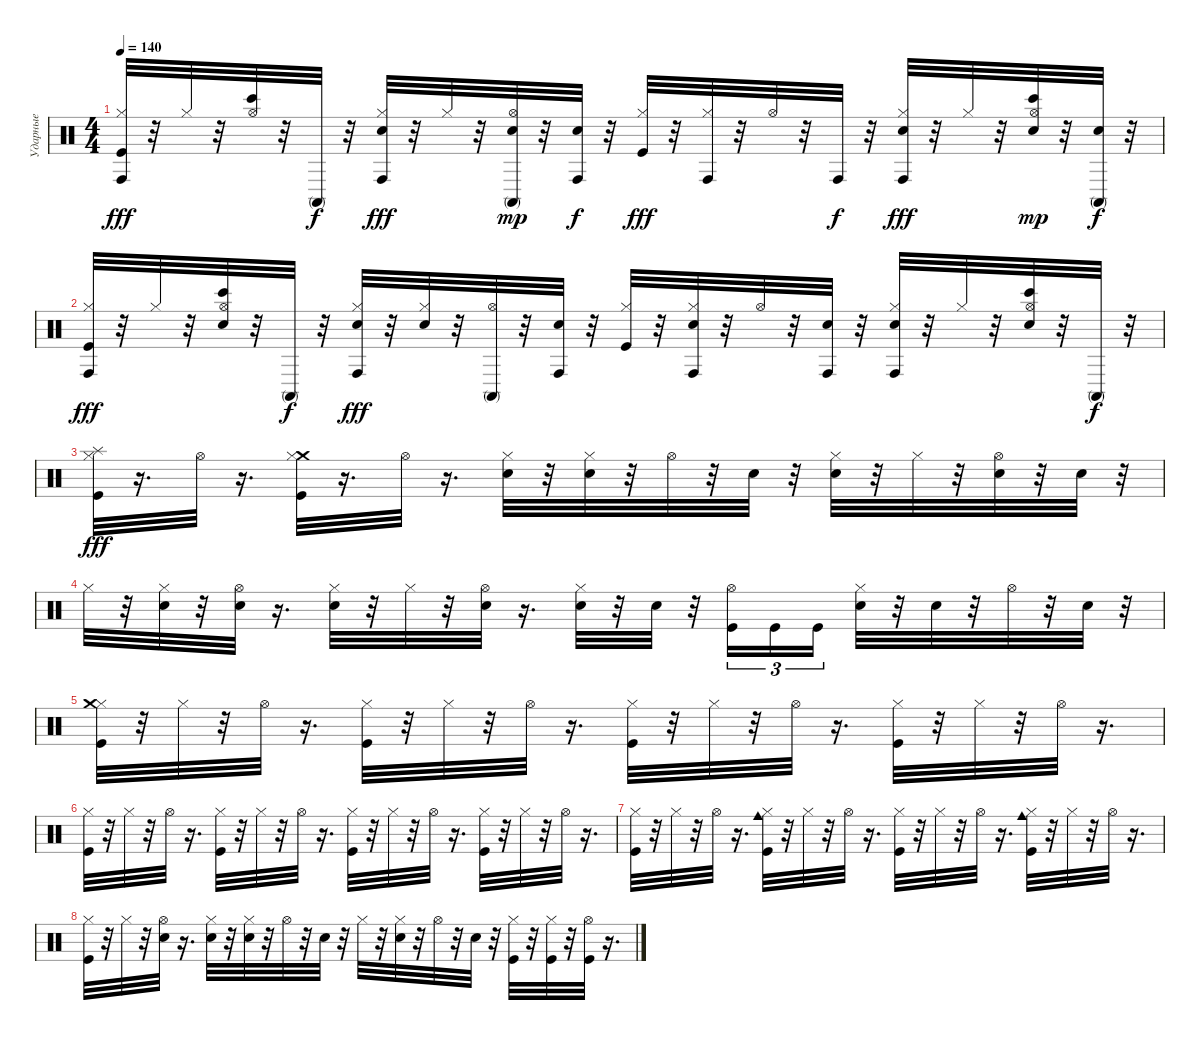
\track ("Ударные" "Ударные") {instrument percussion}
\staff {score}
\articulation defaults
\ts (4 4)
\tempo 140
\clef neutral
\ks c
("Kick (hit)" "Hi-Hat (closed)" "Conga high (hit)").32{dy fff} r.32 "Hi-Hat (closed)".32 r.32 ("Bongo High (hit)" "Hi-Hat (open)").32 r.32 "Conga high (mute)".32{dy f} r.32 ("Conga high (hit)" "Hi-Hat (closed)" "Electric Snare (hit)").32{dy fff} r.32 "Hi-Hat (closed)".32 r.32 ("Conga high (mute)" "Hi-Hat (open)" "Electric Snare (hit)").32{dy mp} r.32 ("Conga high (hit)" "Electric Snare (hit)").32{dy f} r.32 ("Hi-Hat (closed)" "Kick (hit)").32{dy fff} r.32 ("Conga high (hit)" "Hi-Hat (closed)").32 r.32 "Hi-Hat (open)".32 r.32 "Conga high (hit)".32{dy f} r.32 ("Conga high (hit)" "Hi-Hat (closed)" "Electric Snare (hit)").32{dy fff} r.32 "Hi-Hat (closed)".32 r.32 ("Bongo High (hit)" "Hi-Hat (open)" "Electric Snare (hit)").32{dy mp} r.32 ("Conga high (mute)" "Electric Snare (hit)").32{dy f} r.32 |
("Hi-Hat (closed)" "Kick (hit)" "Conga high (hit)").32{dy fff} r.32 "Hi-Hat (closed)".32 r.32 ("Hi-Hat (open)" "Bongo High (hit)" "Electric Snare (hit)").32 r.32 "Conga high (mute)".32{dy f} r.32 ("Hi-Hat (closed)" "Conga high (hit)" "Electric Snare (hit)").32{dy fff} r.32 ("Hi-Hat (closed)" "Electric Snare (hit)").32 r.32 ("Hi-Hat (open)" "Conga high (mute)").32 r.32 ("Conga high (hit)" "Electric Snare (hit)").32 r.32 ("Hi-Hat (closed)" "Kick (hit)").32 r.32 ("Hi-Hat (closed)" "Conga high (hit)" "Electric Snare (hit)").32 r.32 "Hi-Hat (open)".32 r.32 ("Conga high (hit)" "Electric Snare (hit)").32 r.32 ("Hi-Hat (closed)" "Conga high (hit)" "Electric Snare (hit)").32 r.32 "Hi-Hat (closed)".32 r.32 ("Hi-Hat (open)" "Bongo High (hit)" "Electric Snare (hit)").32 r.32 "Conga high (mute)".32{dy f} r.32 |
("Kick (hit)" "Hi-Hat (closed)" "Splash (hit)").32{dy fff} r.16{d} "Hi-Hat (open)".32 r.16{d} ("Kick (hit)" "Crash medium (hit)" "Hi-Hat (closed)").32 r.16{d} "Hi-Hat (open)".32 r.16{d} ("Hi-Hat (closed)" "Electric Snare (hit)").32 r.32 ("Hi-Hat (closed)" "Electric Snare (hit)").32 r.32 "Hi-Hat (open)".32 r.32 "Electric Snare (hit)".32 r.32 ("Hi-Hat (closed)" "Electric Snare (hit)").32 r.32 "Hi-Hat (closed)".32 r.32 ("Hi-Hat (open)" "Electric Snare (hit)").32 r.32 "Electric Snare (hit)".32 r.32 |
"Hi-Hat (closed)".32 r.32 ("Electric Snare (hit)" "Hi-Hat (closed)").32 r.32 ("Electric Snare (hit)" "Hi-Hat (open)").32 r.16{d} ("Electric Snare (hit)" "Hi-Hat (closed)").32 r.32 "Hi-Hat (closed)".32 r.32 ("Electric Snare (hit)" "Hi-Hat (open)").32 r.16{d} ("Hi-Hat (closed)" "Electric Snare (hit)").32 r.32 "Electric Snare (hit)".32 r.32 ("Hi-Hat (open)" "Kick (hit)").16{tu (3 2)} "Kick (hit)".16{tu (3 2)} "Kick (hit)".16{tu (3 2)} ("Hi-Hat (closed)" "Electric Snare (hit)").32 r.32 "Electric Snare (hit)".32 r.32 "Hi-Hat (open)".32 r.32 "Electric Snare (hit)".32 r.32 |
("Hi-Hat (closed)" "Crash medium (hit)" "Kick (hit)").32 r.32 "Hi-Hat (closed)".32 r.32 "Hi-Hat (open)".32 r.16{d} ("Hi-Hat (closed)" "Kick (hit)").32 r.32 "Hi-Hat (closed)".32 r.32 "Hi-Hat (open)".32 r.16{d} ("Hi-Hat (closed)" "Kick (hit)").32 r.32 "Hi-Hat (closed)".32 r.32 "Hi-Hat (open)".32 r.16{d} ("Hi-Hat (closed)" "Kick (hit)").32 r.32 "Hi-Hat (closed)".32 r.32 "Hi-Hat (open)".32 r.16{d} |
("Kick (hit)" "Hi-Hat (closed)").32 r.32 "Hi-Hat (closed)".32 r.32 "Hi-Hat (open)".32 r.16{d} ("Hi-Hat (closed)" "Kick (hit)").32 r.32 "Hi-Hat (closed)".32 r.32 "Hi-Hat (open)".32 r.16{d} ("Hi-Hat (closed)" "Kick (hit)").32 r.32 "Hi-Hat (closed)".32 r.32 "Hi-Hat (open)".32 r.16{d} ("Hi-Hat (closed)" "Kick (hit)").32 r.32 "Hi-Hat (closed)".32 r.32 "Hi-Hat (open)".32 r.16{d} |
("Kick (hit)" "Hi-Hat (closed)").32 r.32 "Hi-Hat (closed)".32 r.32 "Hi-Hat (open)".32 r.16{d} ("Hi-Hat (closed)" "Kick (hit)" "Cowbell medium (hit)").32 r.32 "Hi-Hat (closed)".32 r.32 "Hi-Hat (open)".32 r.16{d} ("Hi-Hat (closed)" "Kick (hit)").32 r.32 "Hi-Hat (closed)".32 r.32 "Hi-Hat (open)".32 r.16{d} ("Hi-Hat (closed)" "Kick (hit)" "Cowbell medium (hit)").32 r.32 "Hi-Hat (closed)".32 r.32 "Hi-Hat (open)".32 r.16{d} |
("Kick (hit)" "Hi-Hat (closed)").32 r.32 "Hi-Hat (closed)".32 r.32 ("Hi-Hat (open)" "Electric Snare (hit)").32 r.16{d} ("Hi-Hat (closed)" "Electric Snare (hit)").32 r.32 ("Hi-Hat (closed)" "Electric Snare (hit)").32 r.32 "Hi-Hat (open)".32 r.32 "Electric Snare (hit)".32 r.32 "Hi-Hat (closed)".32 r.32 ("Hi-Hat (closed)" "Electric Snare (hit)").32 r.32 "Hi-Hat (open)".32 r.32 "Electric Snare (hit)".32 r.32 ("Hi-Hat (closed)" "Kick (hit)").32 r.32 ("Hi-Hat (closed)" "Kick (hit)").32 r.32 ("Hi-Hat (open)" "Kick (hit)").32 r.16{d}
